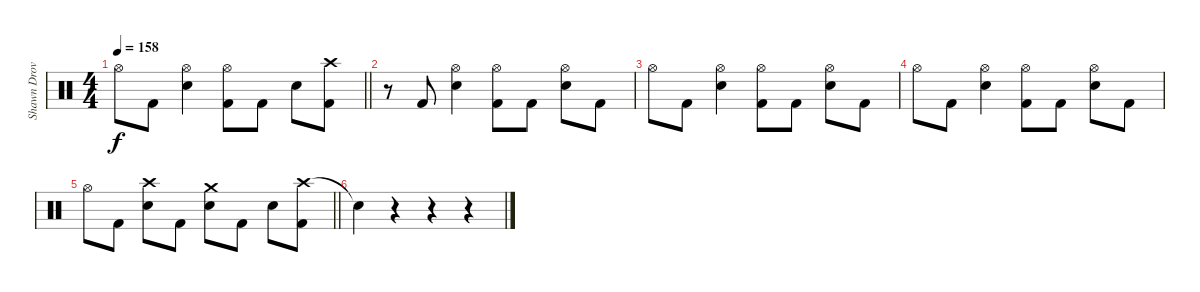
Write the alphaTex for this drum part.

\track ("Shawn Drover" "Shawn Drov") {instrument percussion}
\staff
\articulation defaults
\ts (4 4)
\tempo 158
\clef neutral
\barLineRight lightlight
\ks c "Hi-Hat (open)".8{dy f} "Kick (hit) 2".8
("Hi-Hat (open)" "Snare (hit) 2").4 ("Hi-Hat (open)" "Kick (hit) 2").8 "Kick (hit) 2".8 "Snare (hit) 2".8 ("Crash high (hit)" "Kick (hit) 2").8 |
r.8 "Kick (hit) 2".8 ("Hi-Hat (open)" "Snare (hit) 2").4 ("Hi-Hat (open)" "Kick (hit) 2").8 "Kick (hit) 2".8 ("Hi-Hat (open)" "Snare (hit) 2").8 "Kick (hit) 2".8 |
"Hi-Hat (open)".8 "Kick (hit) 2".8 ("Hi-Hat (open)" "Snare (hit) 2").4 ("Hi-Hat (open)" "Kick (hit) 2").8 "Kick (hit) 2".8 ("Hi-Hat (open)" "Snare (hit) 2").8 "Kick (hit) 2".8 |
"Hi-Hat (open)".8 "Kick (hit) 2".8 ("Hi-Hat (open)" "Snare (hit) 2").4 ("Hi-Hat (open)" "Kick (hit) 2").8 "Kick (hit) 2".8 ("Hi-Hat (open)" "Snare (hit) 2").8 "Kick (hit) 2".8 |
\barLineRight lightlight "Hi-Hat (open)".8 "Kick (hit) 2".8
("Crash high (hit)" "Snare (hit) 2").8 "Kick (hit) 2".8 ("Crash medium (hit)" "Snare (hit) 2").8 "Kick (hit) 2".8 "Snare (hit) 2".8 ("Crash high (hit)" "Kick (hit) 2").8 |
"Snare (hit)"{t}.4 r.4 r.4 r.4
